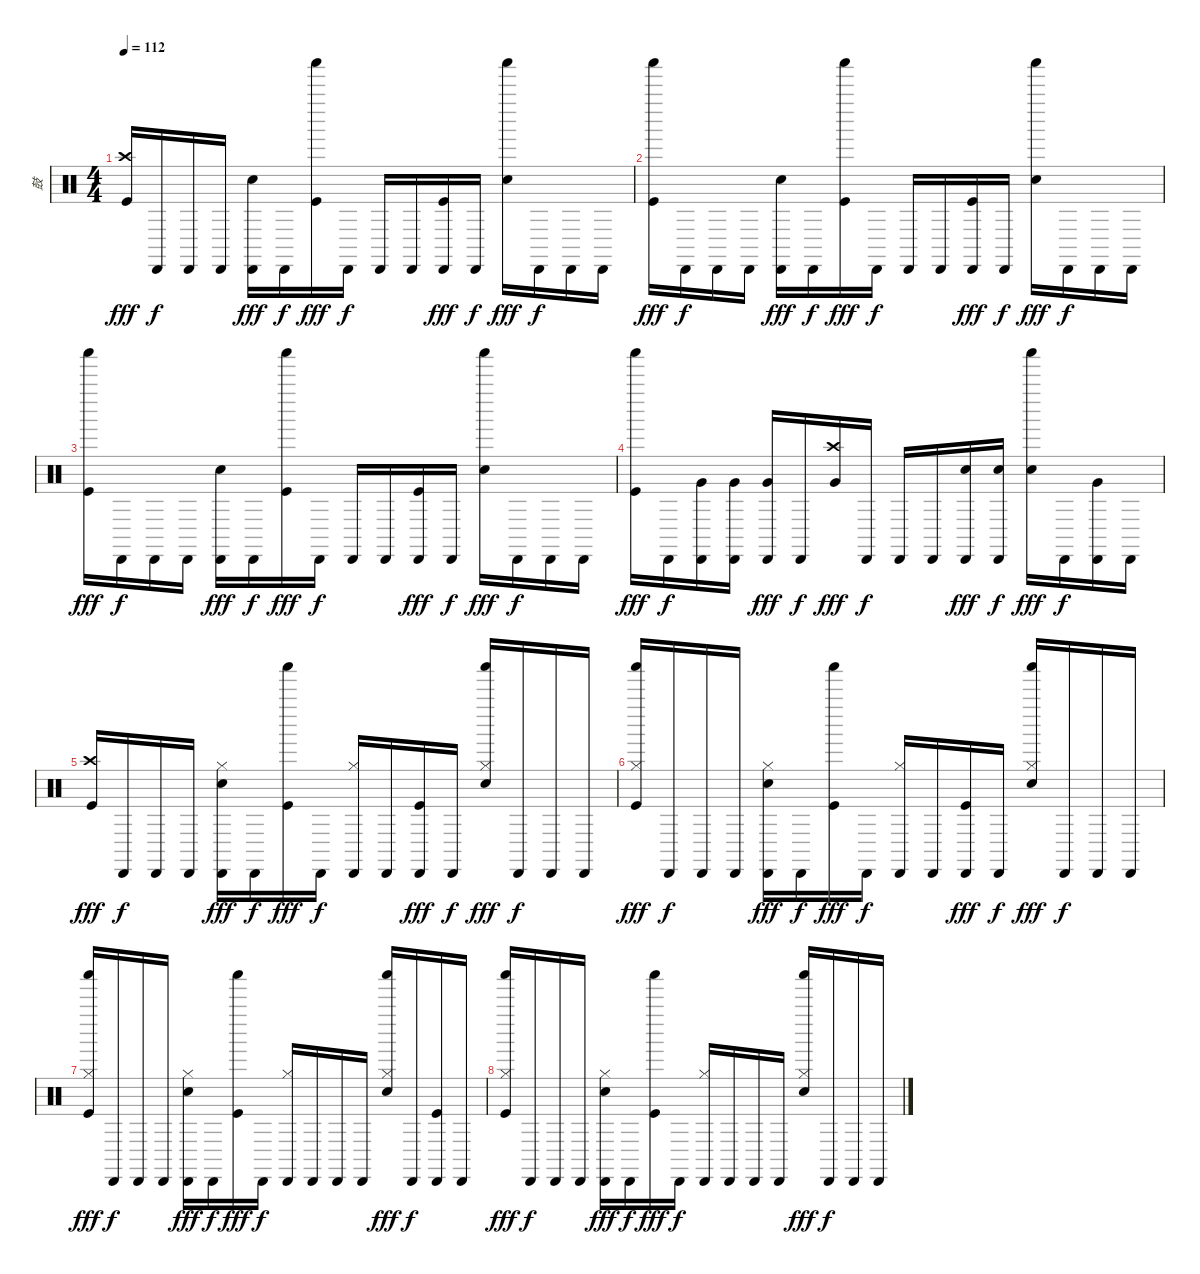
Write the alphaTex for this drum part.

\track ("鼓" "鼓") {instrument percussion}
\staff {score}
\articulation defaults
\ts (4 4)
\tempo 112
\clef neutral
\ks c
("Crash high (hit)" "Kick (hit)").16{dy fff} "Cabasa (hit)".16{dy f} "Cabasa (hit)".16 "Cabasa (hit)".16 ("Cabasa (hit)" "Electric Snare (hit)").16{dy fff} "Cabasa (hit)".16{dy f} ("Shaker (hit)" "Kick (hit)").16{dy fff} "Cabasa (hit)".16{dy f} "Cabasa (hit)".16 "Cabasa (hit)".16 ("Cabasa (hit)" "Kick (hit)").16{dy fff} "Cabasa (hit)".16{dy f} ("Shaker (hit)" "Electric Snare (hit)").16{dy fff} "Cabasa (hit)".16{dy f} "Cabasa (hit)".16 "Cabasa (hit)".16 |
("Shaker (hit)" "Kick (hit)").16{dy fff} "Cabasa (hit)".16{dy f} "Cabasa (hit)".16 "Cabasa (hit)".16 ("Cabasa (hit)" "Electric Snare (hit)").16{dy fff} "Cabasa (hit)".16{dy f} ("Shaker (hit)" "Kick (hit)").16{dy fff} "Cabasa (hit)".16{dy f} "Cabasa (hit)".16 "Cabasa (hit)".16 ("Cabasa (hit)" "Kick (hit)").16{dy fff} "Cabasa (hit)".16{dy f} ("Shaker (hit)" "Electric Snare (hit)").16{dy fff} "Cabasa (hit)".16{dy f} "Cabasa (hit)".16 "Cabasa (hit)".16 |
("Shaker (hit)" "Kick (hit)").16{dy fff} "Cabasa (hit)".16{dy f} "Cabasa (hit)".16 "Cabasa (hit)".16 ("Cabasa (hit)" "Electric Snare (hit)").16{dy fff} "Cabasa (hit)".16{dy f} ("Shaker (hit)" "Kick (hit)").16{dy fff} "Cabasa (hit)".16{dy f} "Cabasa (hit)".16 "Cabasa (hit)".16 ("Cabasa (hit)" "Kick (hit)").16{dy fff} "Cabasa (hit)".16{dy f} ("Shaker (hit)" "Electric Snare (hit)").16{dy fff} "Cabasa (hit)".16{dy f} "Cabasa (hit)".16 "Cabasa (hit)".16 |
("Shaker (hit)" "Kick (hit)").16{dy fff} "Cabasa (hit)".16{dy f} ("Cabasa (hit)" "Very Low Tom (hit)").16 ("Cabasa (hit)" "Very Low Tom (hit)").16 ("Cabasa (hit)" "Very Low Tom (hit)").16{dy fff} "Cabasa (hit)".16{dy f} ("Crash high (hit)" "Very Low Tom (hit)").16{dy fff} "Cabasa (hit)".16{dy f} "Cabasa (hit)".16 "Cabasa (hit)".16 ("Cabasa (hit)" "Electric Snare (hit)").16{dy fff} ("Cabasa (hit)" "Electric Snare (hit)").16{dy f} ("Shaker (hit)" "Electric Snare (hit)").16{dy fff} "Cabasa (hit)".16{dy f} ("Cabasa (hit)" "Very Low Tom (hit)").16 "Cabasa (hit)".16 |
("Crash high (hit)" "Kick (hit)").16{dy fff} "Cabasa (hit)".16{dy f} "Cabasa (hit)".16 "Cabasa (hit)".16 ("Cabasa (hit)" "Hi-Hat (closed)" "Electric Snare (hit)").16{dy fff} "Cabasa (hit)".16{dy f} ("Shaker (hit)" "Kick (hit)").16{dy fff} "Cabasa (hit)".16{dy f} ("Cabasa (hit)" "Hi-Hat (closed)").16 "Cabasa (hit)".16 ("Cabasa (hit)" "Kick (hit)").16{dy fff} "Cabasa (hit)".16{dy f} ("Shaker (hit)" "Hi-Hat (closed)" "Electric Snare (hit)").16{dy fff} "Cabasa (hit)".16{dy f} "Cabasa (hit)".16 "Cabasa (hit)".16 |
("Shaker (hit)" "Hi-Hat (closed)" "Kick (hit)").16{dy fff} "Cabasa (hit)".16{dy f} "Cabasa (hit)".16 "Cabasa (hit)".16 ("Cabasa (hit)" "Hi-Hat (closed)" "Electric Snare (hit)").16{dy fff} "Cabasa (hit)".16{dy f} ("Shaker (hit)" "Kick (hit)").16{dy fff} "Cabasa (hit)".16{dy f} ("Cabasa (hit)" "Hi-Hat (closed)").16 "Cabasa (hit)".16 ("Cabasa (hit)" "Kick (hit)").16{dy fff} "Cabasa (hit)".16{dy f} ("Shaker (hit)" "Hi-Hat (closed)" "Electric Snare (hit)").16{dy fff} "Cabasa (hit)".16{dy f} "Cabasa (hit)".16 "Cabasa (hit)".16 |
("Shaker (hit)" "Hi-Hat (closed)" "Kick (hit)").16{dy fff} "Cabasa (hit)".16{dy f} "Cabasa (hit)".16 "Cabasa (hit)".16 ("Cabasa (hit)" "Hi-Hat (closed)" "Electric Snare (hit)").16{dy fff} "Cabasa (hit)".16{dy f} ("Shaker (hit)" "Kick (hit)").16{dy fff} "Cabasa (hit)".16{dy f} ("Cabasa (hit)" "Hi-Hat (closed)").16 "Cabasa (hit)".16 "Cabasa (hit)".16 "Cabasa (hit)".16 ("Shaker (hit)" "Hi-Hat (closed)" "Electric Snare (hit)").16{dy fff} "Cabasa (hit)".16{dy f} ("Cabasa (hit)" "Kick (hit)").16 "Cabasa (hit)".16 |
("Shaker (hit)" "Hi-Hat (closed)" "Kick (hit)").16{dy fff} "Cabasa (hit)".16{dy f} "Cabasa (hit)".16 "Cabasa (hit)".16 ("Cabasa (hit)" "Hi-Hat (closed)" "Electric Snare (hit)").16{dy fff} "Cabasa (hit)".16{dy f} ("Shaker (hit)" "Kick (hit)").16{dy fff} "Cabasa (hit)".16{dy f} ("Cabasa (hit)" "Hi-Hat (closed)").16 "Cabasa (hit)".16 "Cabasa (hit)".16 "Cabasa (hit)".16 ("Shaker (hit)" "Hi-Hat (closed)" "Electric Snare (hit)").16{dy fff} "Cabasa (hit)".16{dy f} "Cabasa (hit)".16 "Cabasa (hit)".16
